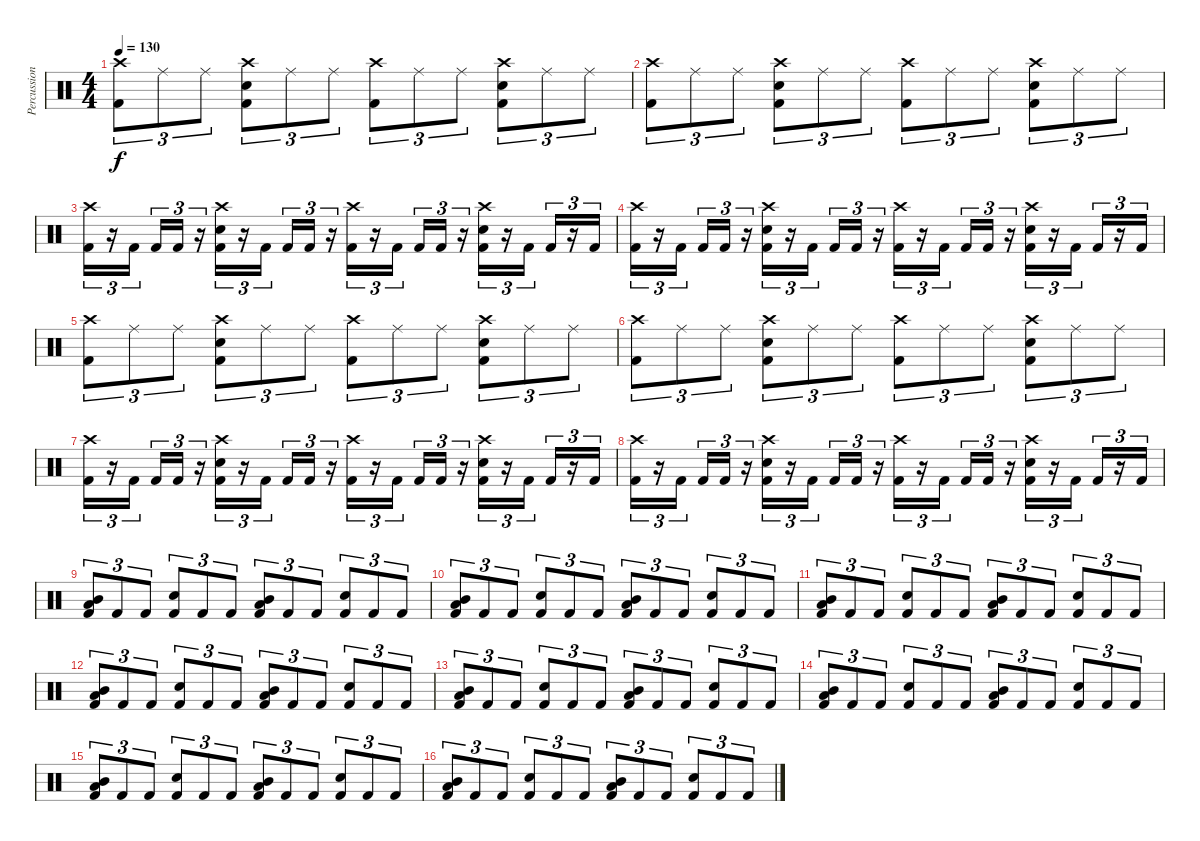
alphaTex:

\track ("Percussion" "Percussion") {instrument percussion}
\staff {score}
\articulation defaults
\ts (4 4)
\tempo 130
\clef neutral
\ks c
("Crash high (hit)" "Kick (hit) 2").8{tu (3 2) dy f} "Ride (middle)".8{tu (3 2)} "Ride (middle)".8{tu (3 2)} ("Crash high (hit)" "Electric Snare (hit)" "Kick (hit) 2").8{tu (3 2)} "Ride (middle)".8{tu (3 2)} "Ride (middle)".8{tu (3 2)} ("Crash high (hit)" "Kick (hit) 2").8{tu (3 2)} "Ride (middle)".8{tu (3 2)} "Ride (middle)".8{tu (3 2)} ("Crash high (hit)" "Electric Snare (hit)" "Kick (hit) 2").8{tu (3 2)} "Ride (middle)".8{tu (3 2)} "Ride (middle)".8{tu (3 2)} |
("Crash high (hit)" "Kick (hit) 2").8{tu (3 2)} "Ride (middle)".8{tu (3 2)} "Ride (middle)".8{tu (3 2)} ("Crash high (hit)" "Electric Snare (hit)" "Kick (hit) 2").8{tu (3 2)} "Ride (middle)".8{tu (3 2)} "Ride (middle)".8{tu (3 2)} ("Crash high (hit)" "Kick (hit) 2").8{tu (3 2)} "Ride (middle)".8{tu (3 2)} "Ride (middle)".8{tu (3 2)} ("Crash high (hit)" "Electric Snare (hit)" "Kick (hit) 2").8{tu (3 2)} "Ride (middle)".8{tu (3 2)} "Ride (middle)".8{tu (3 2)} |
("Crash high (hit)" "Kick (hit) 2").16{tu (3 2)} r.16{tu (3 2)} "Kick (hit) 2".16{tu (3 2) beam splitsecondary} "Kick (hit) 2".16{tu (3 2)} "Kick (hit) 2".16{tu (3 2)} r.16{tu (3 2)} ("Crash high (hit)" "Electric Snare (hit)" "Kick (hit) 2").16{tu (3 2)} r.16{tu (3 2)} "Kick (hit) 2".16{tu (3 2) beam splitsecondary} "Kick (hit) 2".16{tu (3 2)} "Kick (hit) 2".16{tu (3 2)} r.16{tu (3 2)} ("Crash high (hit)" "Kick (hit) 2").16{tu (3 2)} r.16{tu (3 2)} "Kick (hit) 2".16{tu (3 2) beam splitsecondary} "Kick (hit) 2".16{tu (3 2)} "Kick (hit) 2".16{tu (3 2)} r.16{tu (3 2)} ("Crash high (hit)" "Electric Snare (hit)" "Kick (hit) 2").16{tu (3 2)} r.16{tu (3 2)} "Kick (hit) 2".16{tu (3 2)} "Kick (hit) 2".16{tu (3 2)} r.16{tu (3 2)} "Kick (hit) 2".16{tu (3 2)} |
("Crash high (hit)" "Kick (hit) 2").16{tu (3 2)} r.16{tu (3 2)} "Kick (hit) 2".16{tu (3 2) beam splitsecondary} "Kick (hit) 2".16{tu (3 2)} "Kick (hit) 2".16{tu (3 2)} r.16{tu (3 2)} ("Crash high (hit)" "Electric Snare (hit)" "Kick (hit) 2").16{tu (3 2)} r.16{tu (3 2)} "Kick (hit) 2".16{tu (3 2) beam splitsecondary} "Kick (hit) 2".16{tu (3 2)} "Kick (hit) 2".16{tu (3 2)} r.16{tu (3 2)} ("Crash high (hit)" "Kick (hit) 2").16{tu (3 2)} r.16{tu (3 2)} "Kick (hit) 2".16{tu (3 2) beam splitsecondary} "Kick (hit) 2".16{tu (3 2)} "Kick (hit) 2".16{tu (3 2)} r.16{tu (3 2)} ("Crash high (hit)" "Electric Snare (hit)" "Kick (hit) 2").16{tu (3 2)} r.16{tu (3 2)} "Kick (hit) 2".16{tu (3 2)} "Kick (hit) 2".16{tu (3 2)} r.16{tu (3 2)} "Kick (hit) 2".16{tu (3 2)} |
("Crash high (hit)" "Kick (hit) 2").8{tu (3 2)} "Ride (middle)".8{tu (3 2)} "Ride (middle)".8{tu (3 2)} ("Crash high (hit)" "Electric Snare (hit)" "Kick (hit) 2").8{tu (3 2)} "Ride (middle)".8{tu (3 2)} "Ride (middle)".8{tu (3 2)} ("Crash high (hit)" "Kick (hit) 2").8{tu (3 2)} "Ride (middle)".8{tu (3 2)} "Ride (middle)".8{tu (3 2)} ("Crash high (hit)" "Electric Snare (hit)" "Kick (hit) 2").8{tu (3 2)} "Ride (middle)".8{tu (3 2)} "Ride (middle)".8{tu (3 2)} |
("Crash high (hit)" "Kick (hit) 2").8{tu (3 2)} "Ride (middle)".8{tu (3 2)} "Ride (middle)".8{tu (3 2)} ("Crash high (hit)" "Electric Snare (hit)" "Kick (hit) 2").8{tu (3 2)} "Ride (middle)".8{tu (3 2)} "Ride (middle)".8{tu (3 2)} ("Crash high (hit)" "Kick (hit) 2").8{tu (3 2)} "Ride (middle)".8{tu (3 2)} "Ride (middle)".8{tu (3 2)} ("Crash high (hit)" "Electric Snare (hit)" "Kick (hit) 2").8{tu (3 2)} "Ride (middle)".8{tu (3 2)} "Ride (middle)".8{tu (3 2)} |
("Crash high (hit)" "Kick (hit) 2").16{tu (3 2)} r.16{tu (3 2)} "Kick (hit) 2".16{tu (3 2) beam splitsecondary} "Kick (hit) 2".16{tu (3 2)} "Kick (hit) 2".16{tu (3 2)} r.16{tu (3 2)} ("Crash high (hit)" "Electric Snare (hit)" "Kick (hit) 2").16{tu (3 2)} r.16{tu (3 2)} "Kick (hit) 2".16{tu (3 2) beam splitsecondary} "Kick (hit) 2".16{tu (3 2)} "Kick (hit) 2".16{tu (3 2)} r.16{tu (3 2)} ("Crash high (hit)" "Kick (hit) 2").16{tu (3 2)} r.16{tu (3 2)} "Kick (hit) 2".16{tu (3 2) beam splitsecondary} "Kick (hit) 2".16{tu (3 2)} "Kick (hit) 2".16{tu (3 2)} r.16{tu (3 2)} ("Crash high (hit)" "Electric Snare (hit)" "Kick (hit) 2").16{tu (3 2)} r.16{tu (3 2)} "Kick (hit) 2".16{tu (3 2)} "Kick (hit) 2".16{tu (3 2)} r.16{tu (3 2)} "Kick (hit) 2".16{tu (3 2)} |
("Crash high (hit)" "Kick (hit) 2").16{tu (3 2)} r.16{tu (3 2)} "Kick (hit) 2".16{tu (3 2) beam splitsecondary} "Kick (hit) 2".16{tu (3 2)} "Kick (hit) 2".16{tu (3 2)} r.16{tu (3 2)} ("Crash high (hit)" "Electric Snare (hit)" "Kick (hit) 2").16{tu (3 2)} r.16{tu (3 2)} "Kick (hit) 2".16{tu (3 2) beam splitsecondary} "Kick (hit) 2".16{tu (3 2)} "Kick (hit) 2".16{tu (3 2)} r.16{tu (3 2)} ("Crash high (hit)" "Kick (hit) 2").16{tu (3 2)} r.16{tu (3 2)} "Kick (hit) 2".16{tu (3 2) beam splitsecondary} "Kick (hit) 2".16{tu (3 2)} "Kick (hit) 2".16{tu (3 2)} r.16{tu (3 2)} ("Crash high (hit)" "Electric Snare (hit)" "Kick (hit) 2").16{tu (3 2)} r.16{tu (3 2)} "Kick (hit) 2".16{tu (3 2)} "Kick (hit) 2".16{tu (3 2)} r.16{tu (3 2)} "Kick (hit) 2".16{tu (3 2)} |
("Mid Tom (hit)" "Low Tom (hit)" "Kick (hit) 2").8{tu (3 2)} "Kick (hit) 2".8{tu (3 2)} "Kick (hit) 2".8{tu (3 2)} ("Electric Snare (hit)" "Kick (hit) 2").8{tu (3 2)} "Kick (hit) 2".8{tu (3 2)} "Kick (hit) 2".8{tu (3 2)} ("Low Tom (hit)" "Mid Tom (hit)" "Kick (hit) 2").8{tu (3 2)} "Kick (hit) 2".8{tu (3 2)} "Kick (hit) 2".8{tu (3 2)} ("Electric Snare (hit)" "Kick (hit) 2").8{tu (3 2)} "Kick (hit) 2".8{tu (3 2)} "Kick (hit) 2".8{tu (3 2)} |
("Mid Tom (hit)" "Low Tom (hit)" "Kick (hit) 2").8{tu (3 2)} "Kick (hit) 2".8{tu (3 2)} "Kick (hit) 2".8{tu (3 2)} ("Electric Snare (hit)" "Kick (hit) 2").8{tu (3 2)} "Kick (hit) 2".8{tu (3 2)} "Kick (hit) 2".8{tu (3 2)} ("Low Tom (hit)" "Mid Tom (hit)" "Kick (hit) 2").8{tu (3 2)} "Kick (hit) 2".8{tu (3 2)} "Kick (hit) 2".8{tu (3 2)} ("Electric Snare (hit)" "Kick (hit) 2").8{tu (3 2)} "Kick (hit) 2".8{tu (3 2)} "Kick (hit) 2".8{tu (3 2)} |
("Mid Tom (hit)" "Low Tom (hit)" "Kick (hit) 2").8{tu (3 2)} "Kick (hit) 2".8{tu (3 2)} "Kick (hit) 2".8{tu (3 2)} ("Electric Snare (hit)" "Kick (hit) 2").8{tu (3 2)} "Kick (hit) 2".8{tu (3 2)} "Kick (hit) 2".8{tu (3 2)} ("Low Tom (hit)" "Mid Tom (hit)" "Kick (hit) 2").8{tu (3 2)} "Kick (hit) 2".8{tu (3 2)} "Kick (hit) 2".8{tu (3 2)} ("Electric Snare (hit)" "Kick (hit) 2").8{tu (3 2)} "Kick (hit) 2".8{tu (3 2)} "Kick (hit) 2".8{tu (3 2)} |
("Mid Tom (hit)" "Low Tom (hit)" "Kick (hit) 2").8{tu (3 2)} "Kick (hit) 2".8{tu (3 2)} "Kick (hit) 2".8{tu (3 2)} ("Electric Snare (hit)" "Kick (hit) 2").8{tu (3 2)} "Kick (hit) 2".8{tu (3 2)} "Kick (hit) 2".8{tu (3 2)} ("Low Tom (hit)" "Mid Tom (hit)" "Kick (hit) 2").8{tu (3 2)} "Kick (hit) 2".8{tu (3 2)} "Kick (hit) 2".8{tu (3 2)} ("Electric Snare (hit)" "Kick (hit) 2").8{tu (3 2)} "Kick (hit) 2".8{tu (3 2)} "Kick (hit) 2".8{tu (3 2)} |
("Mid Tom (hit)" "Low Tom (hit)" "Kick (hit) 2").8{tu (3 2)} "Kick (hit) 2".8{tu (3 2)} "Kick (hit) 2".8{tu (3 2)} ("Electric Snare (hit)" "Kick (hit) 2").8{tu (3 2)} "Kick (hit) 2".8{tu (3 2)} "Kick (hit) 2".8{tu (3 2)} ("Low Tom (hit)" "Mid Tom (hit)" "Kick (hit) 2").8{tu (3 2)} "Kick (hit) 2".8{tu (3 2)} "Kick (hit) 2".8{tu (3 2)} ("Electric Snare (hit)" "Kick (hit) 2").8{tu (3 2)} "Kick (hit) 2".8{tu (3 2)} "Kick (hit) 2".8{tu (3 2)} |
("Mid Tom (hit)" "Low Tom (hit)" "Kick (hit) 2").8{tu (3 2)} "Kick (hit) 2".8{tu (3 2)} "Kick (hit) 2".8{tu (3 2)} ("Electric Snare (hit)" "Kick (hit) 2").8{tu (3 2)} "Kick (hit) 2".8{tu (3 2)} "Kick (hit) 2".8{tu (3 2)} ("Low Tom (hit)" "Mid Tom (hit)" "Kick (hit) 2").8{tu (3 2)} "Kick (hit) 2".8{tu (3 2)} "Kick (hit) 2".8{tu (3 2)} ("Electric Snare (hit)" "Kick (hit) 2").8{tu (3 2)} "Kick (hit) 2".8{tu (3 2)} "Kick (hit) 2".8{tu (3 2)} |
("Mid Tom (hit)" "Low Tom (hit)" "Kick (hit) 2").8{tu (3 2)} "Kick (hit) 2".8{tu (3 2)} "Kick (hit) 2".8{tu (3 2)} ("Electric Snare (hit)" "Kick (hit) 2").8{tu (3 2)} "Kick (hit) 2".8{tu (3 2)} "Kick (hit) 2".8{tu (3 2)} ("Low Tom (hit)" "Mid Tom (hit)" "Kick (hit) 2").8{tu (3 2)} "Kick (hit) 2".8{tu (3 2)} "Kick (hit) 2".8{tu (3 2)} ("Electric Snare (hit)" "Kick (hit) 2").8{tu (3 2)} "Kick (hit) 2".8{tu (3 2)} "Kick (hit) 2".8{tu (3 2)} |
("Mid Tom (hit)" "Low Tom (hit)" "Kick (hit) 2").8{tu (3 2)} "Kick (hit) 2".8{tu (3 2)} "Kick (hit) 2".8{tu (3 2)} ("Electric Snare (hit)" "Kick (hit) 2").8{tu (3 2)} "Kick (hit) 2".8{tu (3 2)} "Kick (hit) 2".8{tu (3 2)} ("Low Tom (hit)" "Mid Tom (hit)" "Kick (hit) 2").8{tu (3 2)} "Kick (hit) 2".8{tu (3 2)} "Kick (hit) 2".8{tu (3 2)} ("Electric Snare (hit)" "Kick (hit) 2").8{tu (3 2)} "Kick (hit) 2".8{tu (3 2)} "Kick (hit) 2".8{tu (3 2)}
